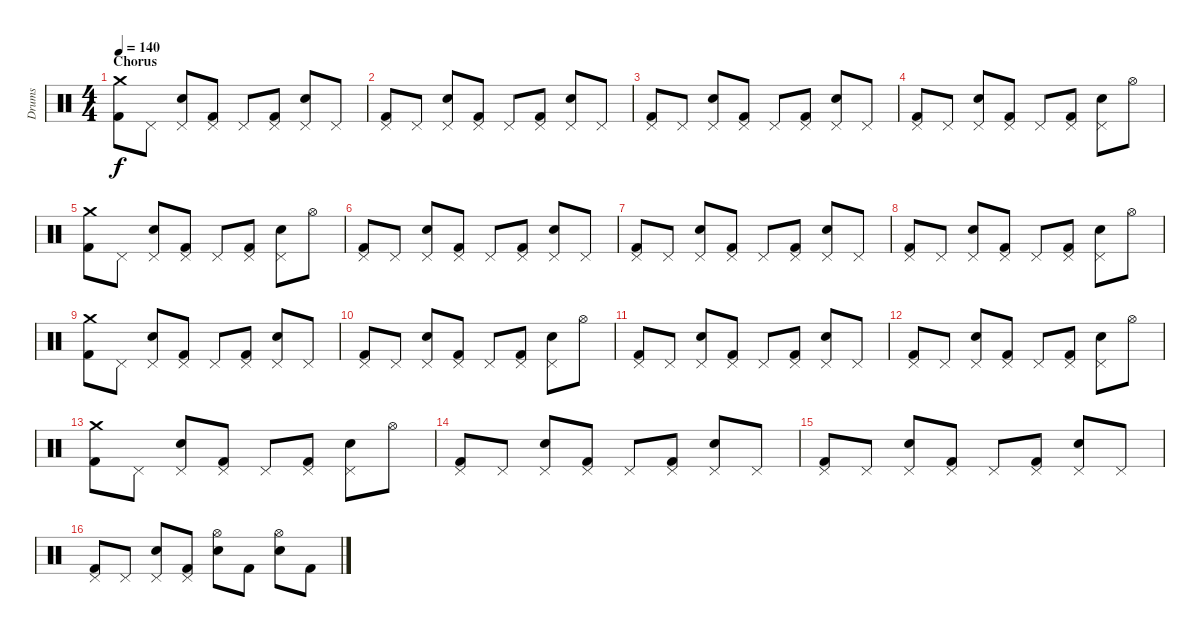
\track ("Drums" "Drums") {instrument percussion}
\staff {score}
\articulation defaults
\ts (4 4)
\section ("" "Chorus")
\tempo 140
\clef neutral
\ks c
("Crash medium (hit)" "Kick (hit) 2").8{dy f} "Pedal Hi-Hat (hit)".8 ("Pedal Hi-Hat (hit)" "Electric Snare (hit)").8 ("Pedal Hi-Hat (hit)" "Kick (hit) 2").8 "Pedal Hi-Hat (hit)".8 ("Pedal Hi-Hat (hit)" "Kick (hit) 2").8 ("Pedal Hi-Hat (hit)" "Electric Snare (hit)").8 "Pedal Hi-Hat (hit)".8 |
("Pedal Hi-Hat (hit)" "Kick (hit) 2").8 "Pedal Hi-Hat (hit)".8 ("Pedal Hi-Hat (hit)" "Electric Snare (hit)").8 ("Pedal Hi-Hat (hit)" "Kick (hit) 2").8 "Pedal Hi-Hat (hit)".8 ("Pedal Hi-Hat (hit)" "Kick (hit) 2").8 ("Pedal Hi-Hat (hit)" "Electric Snare (hit)").8 "Pedal Hi-Hat (hit)".8 |
("Pedal Hi-Hat (hit)" "Kick (hit) 2").8 "Pedal Hi-Hat (hit)".8 ("Pedal Hi-Hat (hit)" "Electric Snare (hit)").8 ("Pedal Hi-Hat (hit)" "Kick (hit) 2").8 "Pedal Hi-Hat (hit)".8 ("Pedal Hi-Hat (hit)" "Kick (hit) 2").8 ("Pedal Hi-Hat (hit)" "Electric Snare (hit)").8 "Pedal Hi-Hat (hit)".8 |
("Pedal Hi-Hat (hit)" "Kick (hit) 2").8 "Pedal Hi-Hat (hit)".8 ("Pedal Hi-Hat (hit)" "Electric Snare (hit)").8 ("Pedal Hi-Hat (hit)" "Kick (hit) 2").8 "Pedal Hi-Hat (hit)".8 ("Pedal Hi-Hat (hit)" "Kick (hit) 2").8 ("Pedal Hi-Hat (hit)" "Electric Snare (hit)").8 "Hi-Hat (open)".8 |
("Crash medium (hit)" "Kick (hit) 2").8 "Pedal Hi-Hat (hit)".8 ("Pedal Hi-Hat (hit)" "Electric Snare (hit)").8 ("Pedal Hi-Hat (hit)" "Kick (hit) 2").8 "Pedal Hi-Hat (hit)".8 ("Pedal Hi-Hat (hit)" "Kick (hit) 2").8 ("Pedal Hi-Hat (hit)" "Electric Snare (hit)").8 "Hi-Hat (open)".8 |
("Pedal Hi-Hat (hit)" "Kick (hit) 2").8 "Pedal Hi-Hat (hit)".8 ("Pedal Hi-Hat (hit)" "Electric Snare (hit)").8 ("Pedal Hi-Hat (hit)" "Kick (hit) 2").8 "Pedal Hi-Hat (hit)".8 ("Pedal Hi-Hat (hit)" "Kick (hit) 2").8 ("Pedal Hi-Hat (hit)" "Electric Snare (hit)").8 "Pedal Hi-Hat (hit)".8 |
("Pedal Hi-Hat (hit)" "Kick (hit) 2").8 "Pedal Hi-Hat (hit)".8 ("Pedal Hi-Hat (hit)" "Electric Snare (hit)").8 ("Pedal Hi-Hat (hit)" "Kick (hit) 2").8 "Pedal Hi-Hat (hit)".8 ("Pedal Hi-Hat (hit)" "Kick (hit) 2").8 ("Pedal Hi-Hat (hit)" "Electric Snare (hit)").8 "Pedal Hi-Hat (hit)".8 |
("Pedal Hi-Hat (hit)" "Kick (hit) 2").8 "Pedal Hi-Hat (hit)".8 ("Pedal Hi-Hat (hit)" "Electric Snare (hit)").8 ("Pedal Hi-Hat (hit)" "Kick (hit) 2").8 "Pedal Hi-Hat (hit)".8 ("Pedal Hi-Hat (hit)" "Kick (hit) 2").8 ("Pedal Hi-Hat (hit)" "Electric Snare (hit)").8 "Hi-Hat (open)".8 |
("Crash medium (hit)" "Kick (hit) 2").8 "Pedal Hi-Hat (hit)".8 ("Pedal Hi-Hat (hit)" "Electric Snare (hit)").8 ("Pedal Hi-Hat (hit)" "Kick (hit) 2").8 "Pedal Hi-Hat (hit)".8 ("Pedal Hi-Hat (hit)" "Kick (hit) 2").8 ("Pedal Hi-Hat (hit)" "Electric Snare (hit)").8 "Pedal Hi-Hat (hit)".8 |
("Pedal Hi-Hat (hit)" "Kick (hit) 2").8 "Pedal Hi-Hat (hit)".8 ("Pedal Hi-Hat (hit)" "Electric Snare (hit)").8 ("Pedal Hi-Hat (hit)" "Kick (hit) 2").8 "Pedal Hi-Hat (hit)".8 ("Pedal Hi-Hat (hit)" "Kick (hit) 2").8 ("Pedal Hi-Hat (hit)" "Electric Snare (hit)").8 "Hi-Hat (open)".8 |
("Pedal Hi-Hat (hit)" "Kick (hit) 2").8 "Pedal Hi-Hat (hit)".8 ("Pedal Hi-Hat (hit)" "Electric Snare (hit)").8 ("Pedal Hi-Hat (hit)" "Kick (hit) 2").8 "Pedal Hi-Hat (hit)".8 ("Pedal Hi-Hat (hit)" "Kick (hit) 2").8 ("Pedal Hi-Hat (hit)" "Electric Snare (hit)").8 "Pedal Hi-Hat (hit)".8 |
("Pedal Hi-Hat (hit)" "Kick (hit) 2").8 "Pedal Hi-Hat (hit)".8 ("Pedal Hi-Hat (hit)" "Electric Snare (hit)").8 ("Pedal Hi-Hat (hit)" "Kick (hit) 2").8 "Pedal Hi-Hat (hit)".8 ("Pedal Hi-Hat (hit)" "Kick (hit) 2").8 ("Pedal Hi-Hat (hit)" "Electric Snare (hit)").8 "Hi-Hat (open)".8 |
("Crash medium (hit)" "Kick (hit) 2").8 "Pedal Hi-Hat (hit)".8 ("Pedal Hi-Hat (hit)" "Electric Snare (hit)").8 ("Pedal Hi-Hat (hit)" "Kick (hit) 2").8 "Pedal Hi-Hat (hit)".8 ("Pedal Hi-Hat (hit)" "Kick (hit) 2").8 ("Pedal Hi-Hat (hit)" "Electric Snare (hit)").8 "Hi-Hat (open)".8 |
("Pedal Hi-Hat (hit)" "Kick (hit) 2").8 "Pedal Hi-Hat (hit)".8 ("Pedal Hi-Hat (hit)" "Electric Snare (hit)").8 ("Pedal Hi-Hat (hit)" "Kick (hit) 2").8 "Pedal Hi-Hat (hit)".8 ("Pedal Hi-Hat (hit)" "Kick (hit) 2").8 ("Pedal Hi-Hat (hit)" "Electric Snare (hit)").8 "Pedal Hi-Hat (hit)".8 |
("Pedal Hi-Hat (hit)" "Kick (hit) 2").8 "Pedal Hi-Hat (hit)".8 ("Pedal Hi-Hat (hit)" "Electric Snare (hit)").8 ("Pedal Hi-Hat (hit)" "Kick (hit) 2").8 "Pedal Hi-Hat (hit)".8 ("Pedal Hi-Hat (hit)" "Kick (hit) 2").8 ("Pedal Hi-Hat (hit)" "Electric Snare (hit)").8 "Pedal Hi-Hat (hit)".8 |
("Pedal Hi-Hat (hit)" "Kick (hit) 2").8 "Pedal Hi-Hat (hit)".8 ("Pedal Hi-Hat (hit)" "Electric Snare (hit)").8 ("Pedal Hi-Hat (hit)" "Kick (hit) 2").8 ("Electric Snare (hit)" "Hi-Hat (open)").8 "Kick (hit) 2".8 ("Electric Snare (hit)" "Hi-Hat (open)").8 "Kick (hit) 2".8
